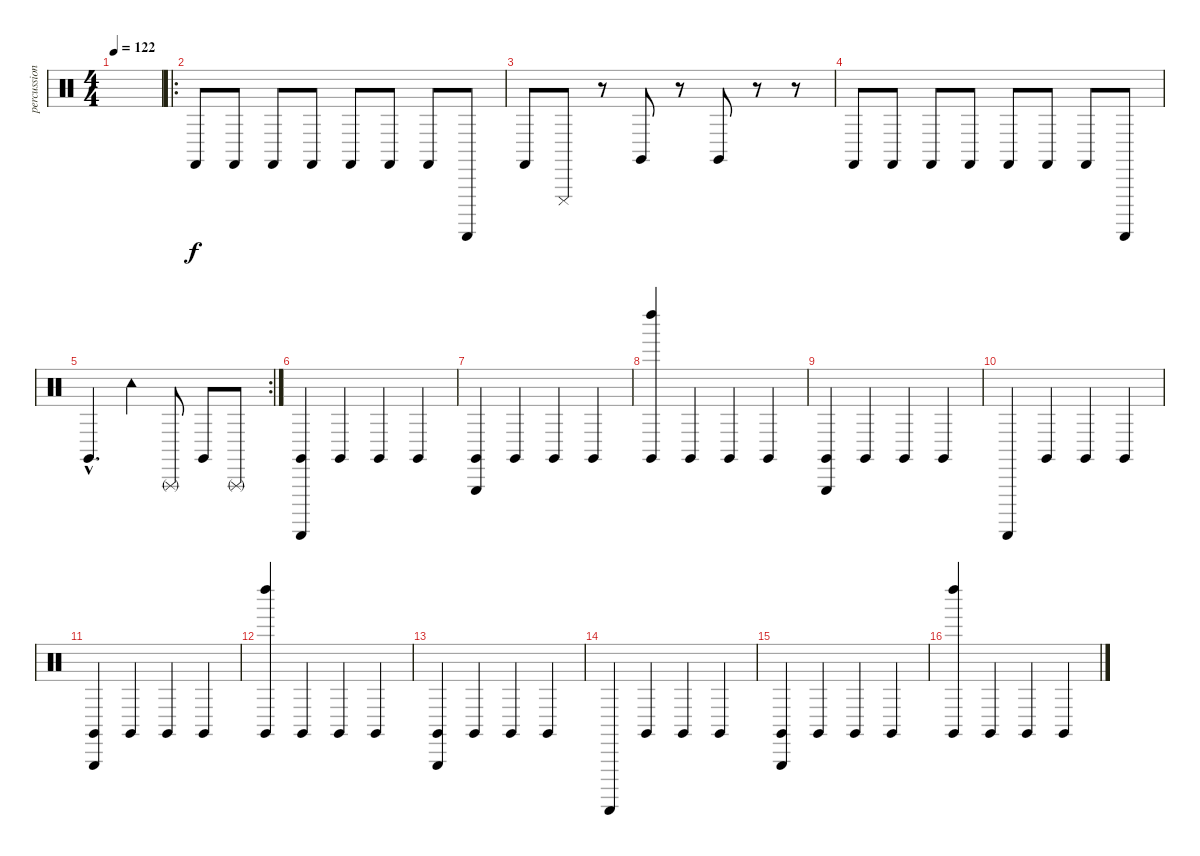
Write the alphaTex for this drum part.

\track ("percussion" "percussion") {instrument percussion}
\staff {score}
\articulation defaults
\ts (4 4)
\tempo 122
\clef neutral
\ks c
|
\ro "Castanets (hit)".8 "Castanets (hit)".8 "Castanets (hit)".8 "Castanets (hit)".8 "Castanets (hit)".8 "Castanets (hit)".8 "Castanets (hit)".8 "Guiro (scrap-return)".8
|
"Castanets (hit)".8 "Cuica (mute)".8 r.8 "Claves (hit)".8 r.8 "Claves (hit)".8 r.8 r.8 |
"Castanets (hit)".8 "Castanets (hit)".8 "Castanets (hit)".8 "Castanets (hit)".8 "Castanets (hit)".8 "Castanets (hit)".8 "Castanets (hit)".8 "Guiro (scrap-return)".8 |
\rc 2 "Claves (hit)"{hac}.4{d} "Tambourine (hit)".4 "Triangle (rnute)".8 "Claves (hit)".8 "Triangle (rnute)".8
|
("Guiro (scrap-return)" "Claves (hit)").4 "Claves (hit)".4 "Claves (hit)".4 "Claves (hit)".4 |
("Triangle (hit)" "Claves (hit)").4 "Claves (hit)".4 "Claves (hit)".4 "Claves (hit)".4 |
("Left Maraca (hit)" "Claves (hit)").4 "Claves (hit)".4 "Claves (hit)".4 "Claves (hit)".4 |
("Triangle (hit)" "Claves (hit)").4 "Claves (hit)".4 "Claves (hit)".4 "Claves (hit)".4 |
"Guiro (scrap-return)".4 "Claves (hit)".4 "Claves (hit)".4 "Claves (hit)".4 |
("Triangle (hit)" "Claves (hit)").4 "Claves (hit)".4 "Claves (hit)".4 "Claves (hit)".4 |
("Left Maraca (hit)" "Claves (hit)").4 "Claves (hit)".4 "Claves (hit)".4 "Claves (hit)".4 |
("Triangle (hit)" "Claves (hit)").4 "Claves (hit)".4 "Claves (hit)".4 "Claves (hit)".4 |
"Guiro (scrap-return)".4 "Claves (hit)".4 "Claves (hit)".4 "Claves (hit)".4 |
("Triangle (hit)" "Claves (hit)").4 "Claves (hit)".4 "Claves (hit)".4 "Claves (hit)".4 |
("Left Maraca (hit)" "Claves (hit)").4 "Claves (hit)".4 "Claves (hit)".4 "Claves (hit)".4
